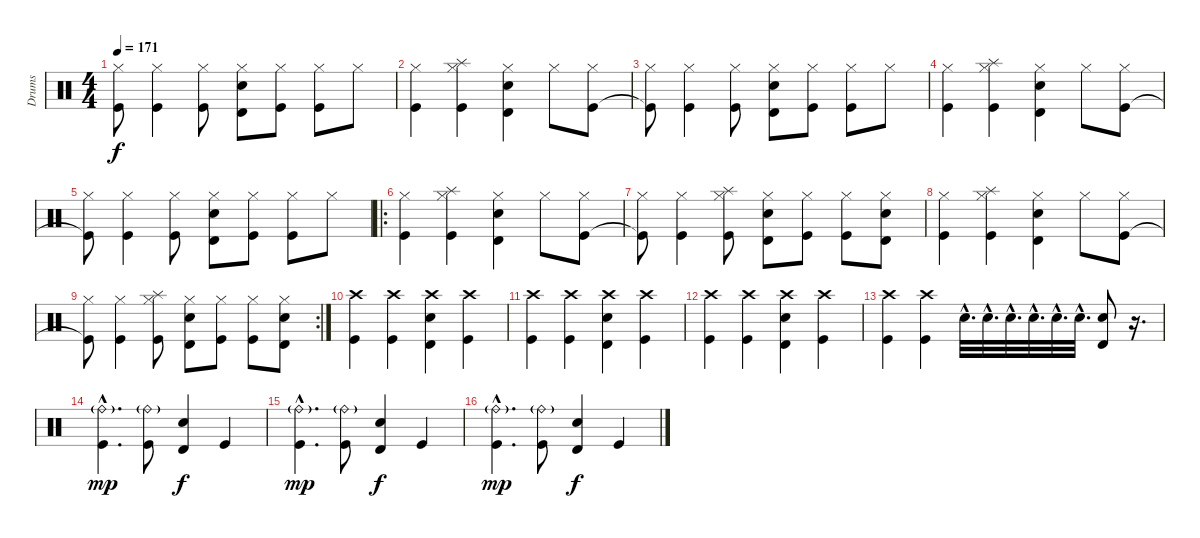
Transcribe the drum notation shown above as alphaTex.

\track ("Drums" "Drums") {instrument percussion}
\staff {score}
\articulation defaults
\ts (4 4)
\tempo 171
\clef neutral
\ks c
("Hi-Hat (closed)" "Kick (hit)"{t}).8{dy f} ("Hi-Hat (closed)" "Kick (hit)").4 ("Hi-Hat (closed)" "Kick (hit)").8 ("Hi-Hat (closed)" "Timbale high (hit)" "Electric Snare (hit)").8 ("Hi-Hat (closed)" "Kick (hit)").8 ("Hi-Hat (closed)" "Kick (hit)").8 "Hi-Hat (closed)".8 |
("Hi-Hat (closed)" "Kick (hit)").4 ("Hi-Hat (closed)" "Splash (hit)" "Kick (hit)").4 ("Hi-Hat (closed)" "Timbale high (hit)" "Electric Snare (hit)").4 "Hi-Hat (closed)".8 ("Hi-Hat (closed)" "Kick (hit)").8 |
("Hi-Hat (closed)" "Kick (hit)"{t}).8 ("Hi-Hat (closed)" "Kick (hit)").4 ("Hi-Hat (closed)" "Kick (hit)").8 ("Hi-Hat (closed)" "Timbale high (hit)" "Electric Snare (hit)").8 ("Hi-Hat (closed)" "Kick (hit)").8 ("Hi-Hat (closed)" "Kick (hit)").8 "Hi-Hat (closed)".8 |
("Hi-Hat (closed)" "Kick (hit)").4 ("Hi-Hat (closed)" "Splash (hit)" "Kick (hit)").4 ("Hi-Hat (closed)" "Timbale high (hit)" "Electric Snare (hit)").4 "Hi-Hat (closed)".8 ("Hi-Hat (closed)" "Kick (hit)").8 |
("Hi-Hat (closed)" "Kick (hit)"{t}).8 ("Hi-Hat (closed)" "Kick (hit)").4 ("Hi-Hat (closed)" "Kick (hit)").8 ("Hi-Hat (closed)" "Timbale high (hit)" "Electric Snare (hit)").8 ("Hi-Hat (closed)" "Kick (hit)").8 ("Hi-Hat (closed)" "Kick (hit)").8 "Hi-Hat (closed)".8 |
\ro
("Hi-Hat (closed)" "Kick (hit)").4 ("Hi-Hat (closed)" "Splash (hit)" "Kick (hit)").4 ("Hi-Hat (closed)" "Timbale high (hit)" "Electric Snare (hit)").4 "Hi-Hat (closed)".8 ("Hi-Hat (closed)" "Kick (hit)").8 |
("Hi-Hat (closed)" "Kick (hit)"{t}).8 ("Hi-Hat (closed)" "Kick (hit)").4 ("Hi-Hat (closed)" "Splash (hit)" "Kick (hit)").8 ("Hi-Hat (closed)" "Timbale high (hit)" "Electric Snare (hit)").8 ("Hi-Hat (closed)" "Kick (hit)").8 ("Hi-Hat (closed)" "Kick (hit)").8 ("Hi-Hat (closed)" "Timbale high (hit)" "Electric Snare (hit)").8 |
("Hi-Hat (closed)" "Kick (hit)").4 ("Hi-Hat (closed)" "Splash (hit)" "Kick (hit)").4 ("Hi-Hat (closed)" "Timbale high (hit)" "Electric Snare (hit)").4 "Hi-Hat (closed)".8 ("Hi-Hat (closed)" "Kick (hit)").8 |
\rc 2
("Hi-Hat (closed)" "Kick (hit)"{t}).8 ("Hi-Hat (closed)" "Kick (hit)").4 ("Hi-Hat (closed)" "Splash (hit)" "Kick (hit)").8 ("Hi-Hat (closed)" "Timbale high (hit)" "Electric Snare (hit)").8 ("Hi-Hat (closed)" "Kick (hit)").8 ("Hi-Hat (closed)" "Kick (hit)").8 ("Hi-Hat (closed)" "Timbale high (hit)" "Electric Snare (hit)").8 |
("Crash high (hit)" "Kick (hit)").4 ("Crash high (hit)" "Kick (hit)").4 ("Crash high (hit)" "Timbale high (hit)" "Electric Snare (hit)").4 ("Crash high (hit)" "Kick (hit)").4 |
("Crash high (hit)" "Kick (hit)").4 ("Crash high (hit)" "Kick (hit)").4 ("Crash high (hit)" "Timbale high (hit)" "Electric Snare (hit)").4 ("Crash high (hit)" "Kick (hit)").4 |
("Crash high (hit)" "Kick (hit)").4 ("Crash high (hit)" "Kick (hit)").4 ("Crash high (hit)" "Timbale high (hit)" "Electric Snare (hit)").4 ("Crash high (hit)" "Kick (hit)").4 |
("Crash high (hit)" "Kick (hit)").4 ("Crash high (hit)" "Kick (hit)").4 "Electric Snare (hit)"{hac}.32{d} "Electric Snare (hit)"{hac}.32{d} "Electric Snare (hit)"{hac}.32{d} "Electric Snare (hit)"{hac}.32{d} "Electric Snare (hit)"{hac}.32{d} "Electric Snare (hit)"{hac}.32{d} ("Electric Snare (hit)" "Timbale high (hit)").8 r.16{d} |
("Ride (bell)"{g hac} "Kick (hit)"{hac}).4{d dy mp} ("Ride (bell)"{g} "Kick (hit)").8 ("Timbale high (hit)" "Electric Snare (hit)").4{dy f} "Kick (hit)".4 |
("Ride (bell)"{g hac} "Kick (hit)"{hac}).4{d dy mp} ("Ride (bell)"{g} "Kick (hit)").8 ("Timbale high (hit)" "Electric Snare (hit)").4{dy f} "Kick (hit)".4 |
("Ride (bell)"{g hac} "Kick (hit)"{hac}).4{d dy mp} ("Ride (bell)"{g} "Kick (hit)").8 ("Timbale high (hit)" "Electric Snare (hit)").4{dy f} "Kick (hit)".4
